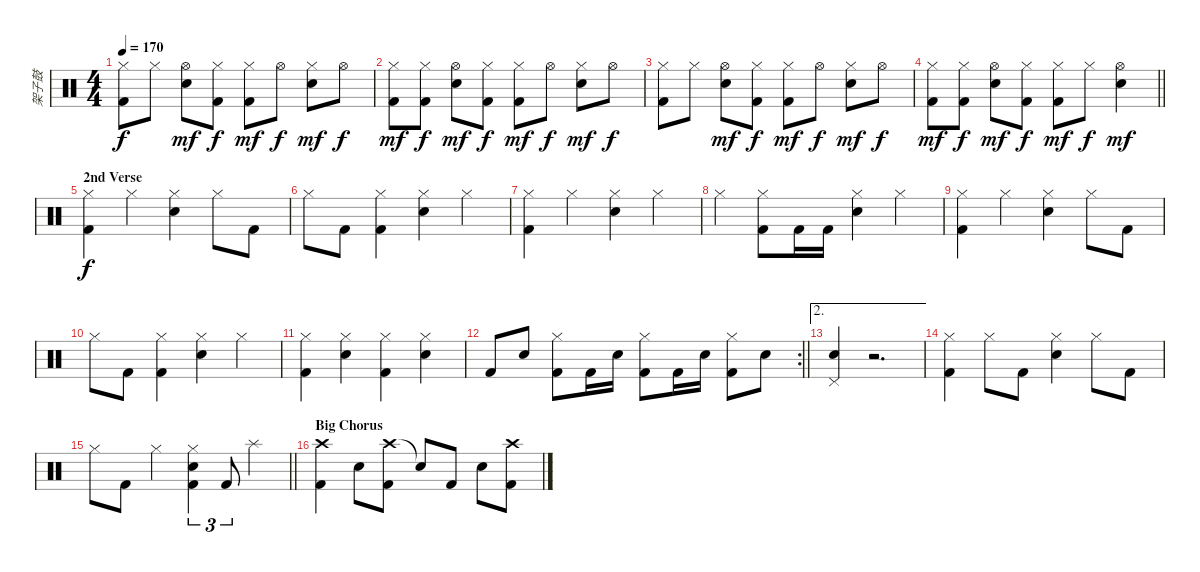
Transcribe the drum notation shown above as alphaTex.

\track ("架子鼓" "架子鼓") {instrument percussion}
\staff {score}
\articulation defaults
\ts (4 4)
\tempo 170
\clef neutral
\ks c
("Hi-Hat (closed)" "Kick (hit) 2").8{dy f} "Hi-Hat (closed)".8 ("Hi-Hat (open)" "Snare (hit) 2").8{dy mf} ("Hi-Hat (closed)" "Kick (hit) 2").8{dy f} ("Hi-Hat (closed)" "Kick (hit) 2").8{dy mf} "Hi-Hat (open)".8{dy f} ("Hi-Hat (closed)" "Snare (hit) 2").8{dy mf} "Hi-Hat (open)".8{dy f} |
("Hi-Hat (closed)" "Kick (hit) 2").8{dy mf} ("Hi-Hat (closed)" "Kick (hit) 2").8{dy f} ("Hi-Hat (open)" "Snare (hit) 2").8{dy mf} ("Hi-Hat (closed)" "Kick (hit) 2").8{dy f} ("Hi-Hat (closed)" "Kick (hit) 2").8{dy mf} "Hi-Hat (open)".8{dy f} ("Hi-Hat (closed)" "Snare (hit) 2").8{dy mf} "Hi-Hat (open)".8{dy f} |
("Hi-Hat (closed)" "Kick (hit) 2").8 "Hi-Hat (closed)".8 ("Hi-Hat (open)" "Snare (hit) 2").8{dy mf} ("Hi-Hat (closed)" "Kick (hit) 2").8{dy f} ("Hi-Hat (closed)" "Kick (hit) 2").8{dy mf} "Hi-Hat (open)".8{dy f} ("Hi-Hat (closed)" "Snare (hit) 2").8{dy mf} "Hi-Hat (open)".8{dy f} |
\barLineRight lightlight
("Hi-Hat (closed)" "Kick (hit) 2").8{dy mf} ("Hi-Hat (closed)" "Kick (hit) 2").8{dy f} ("Hi-Hat (open)" "Snare (hit) 2").8{dy mf} ("Hi-Hat (closed)" "Kick (hit) 2").8{dy f} ("Hi-Hat (closed)" "Kick (hit) 2").8{dy mf} "Hi-Hat (closed)".8{dy f} ("Hi-Hat (open)" "Snare (hit) 2").4{dy mf} |
\section ("" "2nd Verse")
("Hi-Hat (closed)" "Kick (hit) 2").4{dy f} "Hi-Hat (closed)".4 ("Hi-Hat (closed)" "Snare (hit) 2").4 "Hi-Hat (closed)".8 "Kick (hit) 2".8 |
"Hi-Hat (closed)".8 "Kick (hit) 2".8 ("Hi-Hat (closed)" "Kick (hit) 2").4 ("Hi-Hat (closed)" "Snare (hit) 2").4 "Hi-Hat (closed)".4 |
("Hi-Hat (closed)" "Kick (hit) 2").4 "Hi-Hat (closed)".4 ("Hi-Hat (closed)" "Snare (hit) 2").4 "Hi-Hat (closed)".4 |
"Hi-Hat (closed)".4 ("Hi-Hat (closed)" "Kick (hit) 2").8 "Kick (hit) 2".16 "Kick (hit) 2".16 ("Hi-Hat (closed)" "Snare (hit) 2").4 "Hi-Hat (closed)".4 |
("Hi-Hat (closed)" "Kick (hit) 2").4 "Hi-Hat (closed)".4 ("Hi-Hat (closed)" "Snare (hit) 2").4 "Hi-Hat (closed)".8 "Kick (hit) 2".8 |
"Hi-Hat (closed)".8 "Kick (hit) 2".8 ("Hi-Hat (closed)" "Kick (hit) 2").4 ("Hi-Hat (closed)" "Snare (hit) 2").4 "Hi-Hat (closed)".4 |
("Hi-Hat (closed)" "Kick (hit) 2").4 ("Hi-Hat (closed)" "Snare (hit) 2").4 ("Hi-Hat (closed)" "Kick (hit) 2").4 ("Hi-Hat (closed)" "Snare (hit) 2").4 |
\rc 2
\barLineRight lightlight "Kick (hit) 2".8 "Snare (hit) 2".8
("Hi-Hat (closed)" "Kick (hit) 2").8 "Kick (hit) 2".16 "Snare (hit) 2".16 ("Hi-Hat (closed)" "Kick (hit) 2").8 "Kick (hit) 2".16 "Snare (hit) 2".16 ("Hi-Hat (closed)" "Kick (hit) 2").8 "Snare (hit) 2".8 |
\ae 2
("Snare (hit) 2" "Pedal Hi-Hat (hit)").4 r.2{d} |
("Hi-Hat (closed)" "Kick (hit) 2").4 "Hi-Hat (closed)".8 "Kick (hit) 2".8 ("Hi-Hat (closed)" "Snare (hit) 2").4 "Hi-Hat (closed)".8 "Kick (hit) 2".8 |
\barLineRight lightlight "Hi-Hat (closed)".8 "Kick (hit) 2".8 "Hi-Hat (closed)".4
("Hi-Hat (closed)" "Snare (hit) 2" "Kick (hit) 2").4{tu (3 2)} "Kick (hit) 2".8{tu (3 2)} "Splash (hit)".4 |
\section ("" "Big Chorus")
("Crash high (hit)" "Kick (hit) 2").4 "Snare (hit) 2".8 ("Crash high (hit)" "Kick (hit) 2").8 "Snare (hit)"{t}.8 "Kick (hit) 2".8 "Snare (hit) 2".8 ("Crash high (hit)" "Kick (hit) 2").8
